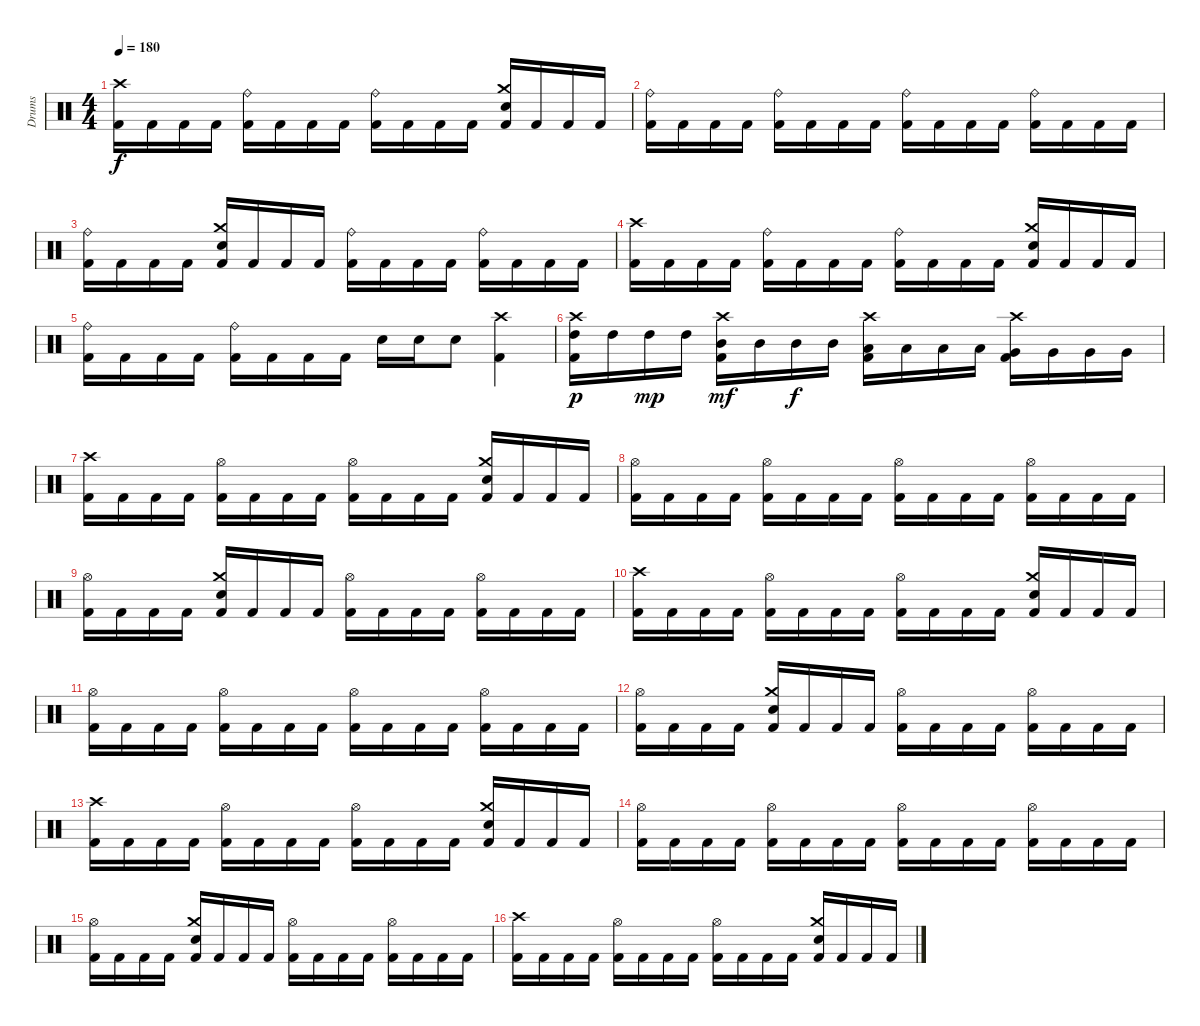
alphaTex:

\track ("Drums" "Drums") {instrument percussion}
\staff {score}
\articulation defaults
\ts (4 4)
\tempo 180
\clef neutral
\ks c
("Crash high (hit)" "Kick (hit) 2").16{dy f} "Kick (hit) 2".16 "Kick (hit) 2".16 "Kick (hit) 2".16 ("Ride (bell)" "Kick (hit) 2").16 "Kick (hit) 2".16 "Kick (hit) 2".16 "Kick (hit) 2".16 ("Ride (bell)" "Kick (hit) 2").16 "Kick (hit) 2".16 "Kick (hit) 2".16 "Kick (hit) 2".16 ("Crash medium (hit)" "Electric Snare (hit)" "Kick (hit) 2").16 "Kick (hit) 2".16 "Kick (hit) 2".16 "Kick (hit) 2".16 |
("Ride (bell)" "Kick (hit) 2").16 "Kick (hit) 2".16 "Kick (hit) 2".16 "Kick (hit) 2".16 ("Ride (bell)" "Kick (hit) 2").16 "Kick (hit) 2".16 "Kick (hit) 2".16 "Kick (hit) 2".16 ("Ride (bell)" "Kick (hit) 2").16 "Kick (hit) 2".16 "Kick (hit) 2".16 "Kick (hit) 2".16 ("Ride (bell)" "Kick (hit) 2").16 "Kick (hit) 2".16 "Kick (hit) 2".16 "Kick (hit) 2".16 |
("Ride (bell)" "Kick (hit) 2").16 "Kick (hit) 2".16 "Kick (hit) 2".16 "Kick (hit) 2".16 ("Crash medium (hit)" "Electric Snare (hit)" "Kick (hit) 2").16 "Kick (hit) 2".16 "Kick (hit) 2".16 "Kick (hit) 2".16 ("Ride (bell)" "Kick (hit) 2").16 "Kick (hit) 2".16 "Kick (hit) 2".16 "Kick (hit) 2".16 ("Ride (bell)" "Kick (hit) 2").16 "Kick (hit) 2".16 "Kick (hit) 2".16 "Kick (hit) 2".16 |
("Crash high (hit)" "Kick (hit) 2").16 "Kick (hit) 2".16 "Kick (hit) 2".16 "Kick (hit) 2".16 ("Ride (bell)" "Kick (hit) 2").16 "Kick (hit) 2".16 "Kick (hit) 2".16 "Kick (hit) 2".16 ("Ride (bell)" "Kick (hit) 2").16 "Kick (hit) 2".16 "Kick (hit) 2".16 "Kick (hit) 2".16 ("Crash medium (hit)" "Electric Snare (hit)" "Kick (hit) 2").16 "Kick (hit) 2".16 "Kick (hit) 2".16 "Kick (hit) 2".16 |
("Ride (bell)" "Kick (hit) 2").16 "Kick (hit) 2".16 "Kick (hit) 2".16 "Kick (hit) 2".16 ("Ride (bell)" "Kick (hit) 2").16 "Kick (hit) 2".16 "Kick (hit) 2".16 "Kick (hit) 2".16 "Electric Snare (hit)".16 "Electric Snare (hit)".16 "Electric Snare (hit)".8 ("Crash high (hit)" "Kick (hit) 2").4 |
("Crash high (hit)" "High Tom (hit)" "Kick (hit) 2").16{dy p} "High Tom (hit)".16 "High Tom (hit)".16{dy mp} "High Tom (hit)".16 ("Crash high (hit)" "Mid Tom (hit)" "Kick (hit) 2").16{dy mf} "Mid Tom (hit)".16 "Mid Tom (hit)".16{dy f} "Mid Tom (hit)".16 ("Crash high (hit)" "Low Tom (hit)" "Kick (hit) 2").16 "Low Tom (hit)".16 "Low Tom (hit)".16 "Low Tom (hit)".16 ("Crash high (hit)" "Very Low Tom (hit)" "Kick (hit) 2").16 "Very Low Tom (hit)".16 "Very Low Tom (hit)".16 "Very Low Tom (hit)".16 |
("Crash high (hit)" "Kick (hit) 2").16 "Kick (hit) 2".16 "Kick (hit) 2".16 "Kick (hit) 2".16 ("Hi-Hat (open)" "Kick (hit) 2").16 "Kick (hit) 2".16 "Kick (hit) 2".16 "Kick (hit) 2".16 ("Hi-Hat (open)" "Kick (hit) 2").16 "Kick (hit) 2".16 "Kick (hit) 2".16 "Kick (hit) 2".16 ("Crash medium (hit)" "Electric Snare (hit)" "Kick (hit) 2").16 "Kick (hit) 2".16 "Kick (hit) 2".16 "Kick (hit) 2".16 |
("Hi-Hat (open)" "Kick (hit) 2").16 "Kick (hit) 2".16 "Kick (hit) 2".16 "Kick (hit) 2".16 ("Hi-Hat (open)" "Kick (hit) 2").16 "Kick (hit) 2".16 "Kick (hit) 2".16 "Kick (hit) 2".16 ("Hi-Hat (open)" "Kick (hit) 2").16 "Kick (hit) 2".16 "Kick (hit) 2".16 "Kick (hit) 2".16 ("Hi-Hat (open)" "Kick (hit) 2").16 "Kick (hit) 2".16 "Kick (hit) 2".16 "Kick (hit) 2".16 |
("Hi-Hat (open)" "Kick (hit) 2").16 "Kick (hit) 2".16 "Kick (hit) 2".16 "Kick (hit) 2".16 ("Crash medium (hit)" "Electric Snare (hit)" "Kick (hit) 2").16 "Kick (hit) 2".16 "Kick (hit) 2".16 "Kick (hit) 2".16 ("Hi-Hat (open)" "Kick (hit) 2").16 "Kick (hit) 2".16 "Kick (hit) 2".16 "Kick (hit) 2".16 ("Hi-Hat (open)" "Kick (hit) 2").16 "Kick (hit) 2".16 "Kick (hit) 2".16 "Kick (hit) 2".16 |
("Crash high (hit)" "Kick (hit) 2").16 "Kick (hit) 2".16 "Kick (hit) 2".16 "Kick (hit) 2".16 ("Hi-Hat (open)" "Kick (hit) 2").16 "Kick (hit) 2".16 "Kick (hit) 2".16 "Kick (hit) 2".16 ("Hi-Hat (open)" "Kick (hit) 2").16 "Kick (hit) 2".16 "Kick (hit) 2".16 "Kick (hit) 2".16 ("Crash medium (hit)" "Electric Snare (hit)" "Kick (hit) 2").16 "Kick (hit) 2".16 "Kick (hit) 2".16 "Kick (hit) 2".16 |
("Hi-Hat (open)" "Kick (hit) 2").16 "Kick (hit) 2".16 "Kick (hit) 2".16 "Kick (hit) 2".16 ("Hi-Hat (open)" "Kick (hit) 2").16 "Kick (hit) 2".16 "Kick (hit) 2".16 "Kick (hit) 2".16 ("Hi-Hat (open)" "Kick (hit) 2").16 "Kick (hit) 2".16 "Kick (hit) 2".16 "Kick (hit) 2".16 ("Hi-Hat (open)" "Kick (hit) 2").16 "Kick (hit) 2".16 "Kick (hit) 2".16 "Kick (hit) 2".16 |
("Hi-Hat (open)" "Kick (hit) 2").16 "Kick (hit) 2".16 "Kick (hit) 2".16 "Kick (hit) 2".16 ("Crash medium (hit)" "Electric Snare (hit)" "Kick (hit) 2").16 "Kick (hit) 2".16 "Kick (hit) 2".16 "Kick (hit) 2".16 ("Hi-Hat (open)" "Kick (hit) 2").16 "Kick (hit) 2".16 "Kick (hit) 2".16 "Kick (hit) 2".16 ("Hi-Hat (open)" "Kick (hit) 2").16 "Kick (hit) 2".16 "Kick (hit) 2".16 "Kick (hit) 2".16 |
("Crash high (hit)" "Kick (hit) 2").16 "Kick (hit) 2".16 "Kick (hit) 2".16 "Kick (hit) 2".16 ("Hi-Hat (open)" "Kick (hit) 2").16 "Kick (hit) 2".16 "Kick (hit) 2".16 "Kick (hit) 2".16 ("Hi-Hat (open)" "Kick (hit) 2").16 "Kick (hit) 2".16 "Kick (hit) 2".16 "Kick (hit) 2".16 ("Crash medium (hit)" "Electric Snare (hit)" "Kick (hit) 2").16 "Kick (hit) 2".16 "Kick (hit) 2".16 "Kick (hit) 2".16 |
("Hi-Hat (open)" "Kick (hit) 2").16 "Kick (hit) 2".16 "Kick (hit) 2".16 "Kick (hit) 2".16 ("Hi-Hat (open)" "Kick (hit) 2").16 "Kick (hit) 2".16 "Kick (hit) 2".16 "Kick (hit) 2".16 ("Hi-Hat (open)" "Kick (hit) 2").16 "Kick (hit) 2".16 "Kick (hit) 2".16 "Kick (hit) 2".16 ("Hi-Hat (open)" "Kick (hit) 2").16 "Kick (hit) 2".16 "Kick (hit) 2".16 "Kick (hit) 2".16 |
("Hi-Hat (open)" "Kick (hit) 2").16 "Kick (hit) 2".16 "Kick (hit) 2".16 "Kick (hit) 2".16 ("Crash medium (hit)" "Electric Snare (hit)" "Kick (hit) 2").16 "Kick (hit) 2".16 "Kick (hit) 2".16 "Kick (hit) 2".16 ("Hi-Hat (open)" "Kick (hit) 2").16 "Kick (hit) 2".16 "Kick (hit) 2".16 "Kick (hit) 2".16 ("Hi-Hat (open)" "Kick (hit) 2").16 "Kick (hit) 2".16 "Kick (hit) 2".16 "Kick (hit) 2".16 |
("Crash high (hit)" "Kick (hit) 2").16 "Kick (hit) 2".16 "Kick (hit) 2".16 "Kick (hit) 2".16 ("Hi-Hat (open)" "Kick (hit) 2").16 "Kick (hit) 2".16 "Kick (hit) 2".16 "Kick (hit) 2".16 ("Hi-Hat (open)" "Kick (hit) 2").16 "Kick (hit) 2".16 "Kick (hit) 2".16 "Kick (hit) 2".16 ("Crash medium (hit)" "Electric Snare (hit)" "Kick (hit) 2").16 "Kick (hit) 2".16 "Kick (hit) 2".16 "Kick (hit) 2".16
